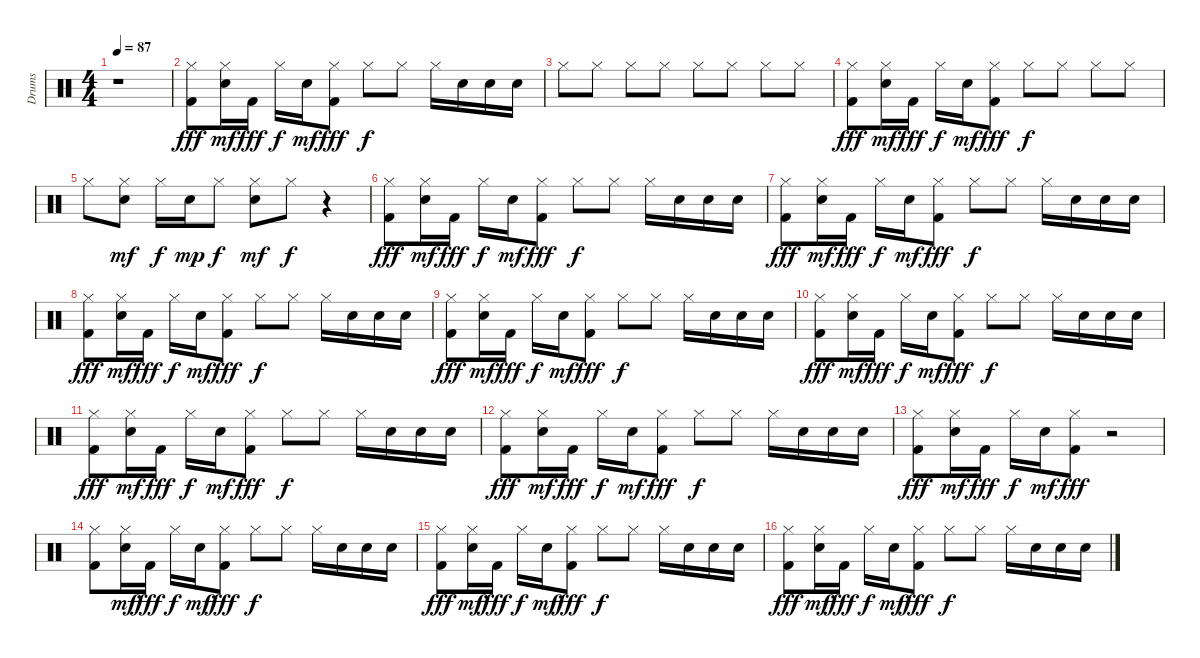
\track ("Drums" "Drums") {instrument percussion}
\staff {score}
\articulation defaults
\ts (4 4)
\tempo 87
\clef neutral
\ks c
r.1{dy fff} |
("Hi-Hat (closed)" "Kick (hit) 2").8 ("Hi-Hat (closed)" "Snare (hit) 2").16{dy mf} "Kick (hit) 2".16{dy fff} "Hi-Hat (closed)".16{dy f} "Snare (hit) 2".16{dy mf} ("Hi-Hat (closed)" "Kick (hit) 2").8{dy fff} "Hi-Hat (closed)".8{dy f} "Hi-Hat (closed)".8 "Hi-Hat (closed)".16 "Snare (hit) 2".16 "Snare (hit) 2".16 "Snare (hit) 2".16 |
"Hi-Hat (closed)".8 "Hi-Hat (closed)".8 "Hi-Hat (closed)".8 "Hi-Hat (closed)".8 "Hi-Hat (closed)".8 "Hi-Hat (closed)".8 "Hi-Hat (closed)".8 "Hi-Hat (closed)".8 |
("Hi-Hat (closed)" "Kick (hit) 2").8{dy fff} ("Hi-Hat (closed)" "Snare (hit) 2").16{dy mf} "Kick (hit) 2".16{dy fff} "Hi-Hat (closed)".16{dy f} "Snare (hit) 2".16{dy mf} ("Hi-Hat (closed)" "Kick (hit) 2").8{dy fff} "Hi-Hat (closed)".8{dy f} "Hi-Hat (closed)".8 "Hi-Hat (closed)".8 "Hi-Hat (closed)".8 |
"Hi-Hat (closed)".8 ("Hi-Hat (closed)" "Snare (hit) 2").8{dy mf} "Hi-Hat (closed)".16{dy f} "Snare (hit) 2".16{dy mp} "Hi-Hat (closed)".8{dy f} ("Hi-Hat (closed)" "Snare (hit) 2").8{dy mf} "Hi-Hat (closed)".8{dy f} r.4 |
("Hi-Hat (closed)" "Kick (hit) 2").8{dy fff} ("Hi-Hat (closed)" "Snare (hit) 2").16{dy mf} "Kick (hit) 2".16{dy fff} "Hi-Hat (closed)".16{dy f} "Snare (hit) 2".16{dy mf} ("Hi-Hat (closed)" "Kick (hit) 2").8{dy fff} "Hi-Hat (closed)".8{dy f} "Hi-Hat (closed)".8 "Hi-Hat (closed)".16 "Snare (hit) 2".16 "Snare (hit) 2".16 "Snare (hit) 2".16 |
("Hi-Hat (closed)" "Kick (hit) 2").8{dy fff} ("Hi-Hat (closed)" "Snare (hit) 2").16{dy mf} "Kick (hit) 2".16{dy fff} "Hi-Hat (closed)".16{dy f} "Snare (hit) 2".16{dy mf} ("Hi-Hat (closed)" "Kick (hit) 2").8{dy fff} "Hi-Hat (closed)".8{dy f} "Hi-Hat (closed)".8 "Hi-Hat (closed)".16 "Snare (hit) 2".16 "Snare (hit) 2".16 "Snare (hit) 2".16 |
("Hi-Hat (closed)" "Kick (hit) 2").8{dy fff} ("Hi-Hat (closed)" "Snare (hit) 2").16{dy mf} "Kick (hit) 2".16{dy fff} "Hi-Hat (closed)".16{dy f} "Snare (hit) 2".16{dy mf} ("Hi-Hat (closed)" "Kick (hit) 2").8{dy fff} "Hi-Hat (closed)".8{dy f} "Hi-Hat (closed)".8 "Hi-Hat (closed)".16 "Snare (hit) 2".16 "Snare (hit) 2".16 "Snare (hit) 2".16 |
("Hi-Hat (closed)" "Kick (hit) 2").8{dy fff} ("Hi-Hat (closed)" "Snare (hit) 2").16{dy mf} "Kick (hit) 2".16{dy fff} "Hi-Hat (closed)".16{dy f} "Snare (hit) 2".16{dy mf} ("Hi-Hat (closed)" "Kick (hit) 2").8{dy fff} "Hi-Hat (closed)".8{dy f} "Hi-Hat (closed)".8 "Hi-Hat (closed)".16 "Snare (hit) 2".16 "Snare (hit) 2".16 "Snare (hit) 2".16 |
("Hi-Hat (closed)" "Kick (hit) 2").8{dy fff} ("Hi-Hat (closed)" "Snare (hit) 2").16{dy mf} "Kick (hit) 2".16{dy fff} "Hi-Hat (closed)".16{dy f} "Snare (hit) 2".16{dy mf} ("Hi-Hat (closed)" "Kick (hit) 2").8{dy fff} "Hi-Hat (closed)".8{dy f} "Hi-Hat (closed)".8 "Hi-Hat (closed)".16 "Snare (hit) 2".16 "Snare (hit) 2".16 "Snare (hit) 2".16 |
("Hi-Hat (closed)" "Kick (hit) 2").8{dy fff} ("Hi-Hat (closed)" "Snare (hit) 2").16{dy mf} "Kick (hit) 2".16{dy fff} "Hi-Hat (closed)".16{dy f} "Snare (hit) 2".16{dy mf} ("Hi-Hat (closed)" "Kick (hit) 2").8{dy fff} "Hi-Hat (closed)".8{dy f} "Hi-Hat (closed)".8 "Hi-Hat (closed)".16 "Snare (hit) 2".16 "Snare (hit) 2".16 "Snare (hit) 2".16 |
("Hi-Hat (closed)" "Kick (hit) 2").8{dy fff} ("Hi-Hat (closed)" "Snare (hit) 2").16{dy mf} "Kick (hit) 2".16{dy fff} "Hi-Hat (closed)".16{dy f} "Snare (hit) 2".16{dy mf} ("Hi-Hat (closed)" "Kick (hit) 2").8{dy fff} "Hi-Hat (closed)".8{dy f} "Hi-Hat (closed)".8 "Hi-Hat (closed)".16 "Snare (hit) 2".16 "Snare (hit) 2".16 "Snare (hit) 2".16 |
("Hi-Hat (closed)" "Kick (hit) 2").8{dy fff} ("Hi-Hat (closed)" "Snare (hit) 2").16{dy mf} "Kick (hit) 2".16{dy fff} "Hi-Hat (closed)".16{dy f} "Snare (hit) 2".16{dy mf} ("Hi-Hat (closed)" "Kick (hit) 2").8{dy fff} r.2 |
("Hi-Hat (closed)" "Kick (hit) 2").8 ("Hi-Hat (closed)" "Snare (hit) 2").16{dy mf} "Kick (hit) 2".16{dy fff} "Hi-Hat (closed)".16{dy f} "Snare (hit) 2".16{dy mf} ("Hi-Hat (closed)" "Kick (hit) 2").8{dy fff} "Hi-Hat (closed)".8{dy f} "Hi-Hat (closed)".8 "Hi-Hat (closed)".16 "Snare (hit) 2".16 "Snare (hit) 2".16 "Snare (hit) 2".16 |
("Hi-Hat (closed)" "Kick (hit) 2").8{dy fff} ("Hi-Hat (closed)" "Snare (hit) 2").16{dy mf} "Kick (hit) 2".16{dy fff} "Hi-Hat (closed)".16{dy f} "Snare (hit) 2".16{dy mf} ("Hi-Hat (closed)" "Kick (hit) 2").8{dy fff} "Hi-Hat (closed)".8{dy f} "Hi-Hat (closed)".8 "Hi-Hat (closed)".16 "Snare (hit) 2".16 "Snare (hit) 2".16 "Snare (hit) 2".16 |
("Hi-Hat (closed)" "Kick (hit) 2").8{dy fff} ("Hi-Hat (closed)" "Snare (hit) 2").16{dy mf} "Kick (hit) 2".16{dy fff} "Hi-Hat (closed)".16{dy f} "Snare (hit) 2".16{dy mf} ("Hi-Hat (closed)" "Kick (hit) 2").8{dy fff} "Hi-Hat (closed)".8{dy f} "Hi-Hat (closed)".8 "Hi-Hat (closed)".16 "Snare (hit) 2".16 "Snare (hit) 2".16 "Snare (hit) 2".16
